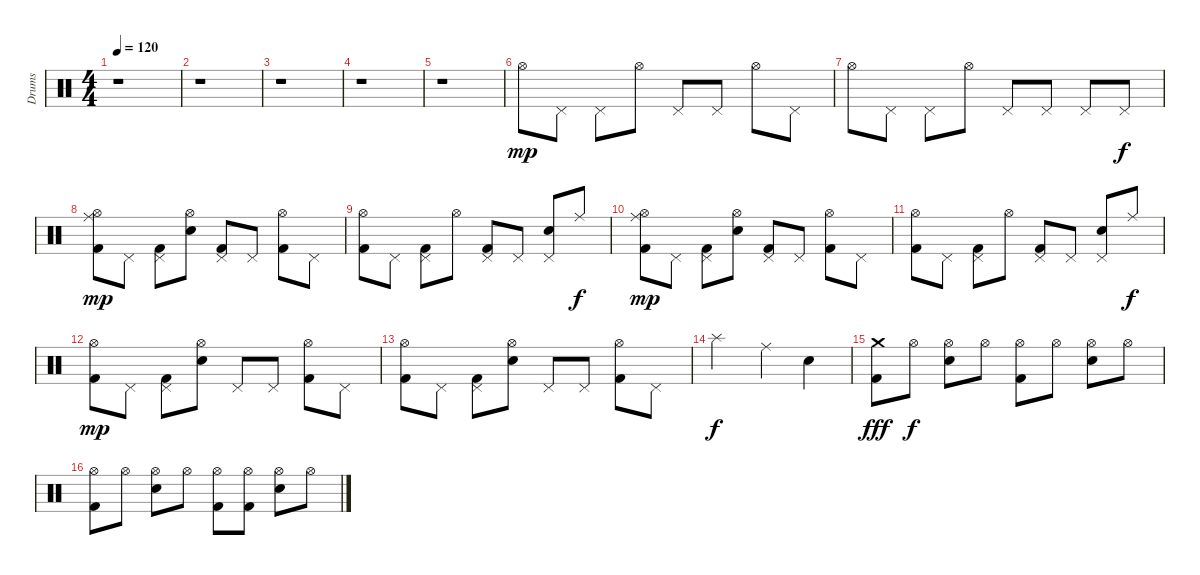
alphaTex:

\track ("Drums" "Drums") {instrument percussion}
\staff {score}
\articulation defaults
\ts (4 4)
\tempo 120
\clef neutral
\ks c
r.1{dy mp} |
r.1 |
r.1 |
r.1 |
r.1 |
"Hi-Hat (open)".8 "Pedal Hi-Hat (hit)".8 "Pedal Hi-Hat (hit)".8 "Hi-Hat (open)".8 "Pedal Hi-Hat (hit)".8 "Pedal Hi-Hat (hit)".8 "Hi-Hat (open)".8 "Pedal Hi-Hat (hit)".8 |
"Hi-Hat (open)".8 "Pedal Hi-Hat (hit)".8 "Pedal Hi-Hat (hit)".8 "Hi-Hat (open)".8 "Pedal Hi-Hat (hit)".8 "Pedal Hi-Hat (hit)".8 "Pedal Hi-Hat (hit)".8 "Pedal Hi-Hat (hit)".8{dy f} |
("Ride (middle)" "Hi-Hat (open)" "Kick (hit) 2").8{dy mp} "Pedal Hi-Hat (hit)".8 ("Pedal Hi-Hat (hit)" "Kick (hit) 2").8 ("Hi-Hat (open)" "Electric Snare (hit)").8 ("Pedal Hi-Hat (hit)" "Kick (hit) 2").8 "Pedal Hi-Hat (hit)".8 ("Hi-Hat (open)" "Kick (hit) 2").8 "Pedal Hi-Hat (hit)".8 |
("Hi-Hat (open)" "Kick (hit) 2").8 "Pedal Hi-Hat (hit)".8 ("Pedal Hi-Hat (hit)" "Kick (hit) 2").8 "Hi-Hat (open)".8 ("Pedal Hi-Hat (hit)" "Kick (hit) 2").8 "Pedal Hi-Hat (hit)".8 ("Pedal Hi-Hat (hit)" "Electric Snare (hit)").8 "Ride (middle)".8{dy f} |
("Ride (middle)" "Hi-Hat (open)" "Kick (hit) 2").8{dy mp} "Pedal Hi-Hat (hit)".8 ("Pedal Hi-Hat (hit)" "Kick (hit) 2").8 ("Hi-Hat (open)" "Electric Snare (hit)").8 ("Pedal Hi-Hat (hit)" "Kick (hit) 2").8 "Pedal Hi-Hat (hit)".8 ("Hi-Hat (open)" "Kick (hit) 2").8 "Pedal Hi-Hat (hit)".8 |
("Hi-Hat (open)" "Kick (hit) 2").8 "Pedal Hi-Hat (hit)".8 ("Pedal Hi-Hat (hit)" "Kick (hit) 2").8 "Hi-Hat (open)".8 ("Pedal Hi-Hat (hit)" "Kick (hit) 2").8 "Pedal Hi-Hat (hit)".8 ("Pedal Hi-Hat (hit)" "Electric Snare (hit)").8 "Ride (middle)".8{dy f} |
("Hi-Hat (open)" "Kick (hit) 2").8{dy mp} "Pedal Hi-Hat (hit)".8 ("Pedal Hi-Hat (hit)" "Kick (hit) 2").8 ("Hi-Hat (open)" "Electric Snare (hit)").8 "Pedal Hi-Hat (hit)".8 "Pedal Hi-Hat (hit)".8 ("Hi-Hat (open)" "Kick (hit) 2").8 "Pedal Hi-Hat (hit)".8 |
("Hi-Hat (open)" "Kick (hit) 2").8 "Pedal Hi-Hat (hit)".8 ("Pedal Hi-Hat (hit)" "Kick (hit) 2").8 ("Hi-Hat (open)" "Electric Snare (hit)").8 "Pedal Hi-Hat (hit)".8 "Pedal Hi-Hat (hit)".8 ("Hi-Hat (open)" "Kick (hit) 2").8 "Pedal Hi-Hat (hit)".8 |
"Splash (hit)".2{dy f} "Ride (middle)".4 "Electric Snare (hit)".4 |
("Crash medium (hit)" "Kick (hit) 2").8{dy fff} "Hi-Hat (open)".8{dy f} ("Hi-Hat (open)" "Electric Snare (hit)").8 "Hi-Hat (open)".8 ("Hi-Hat (open)" "Kick (hit) 2").8 "Hi-Hat (open)".8 ("Hi-Hat (open)" "Electric Snare (hit)").8 "Hi-Hat (open)".8 |
("Hi-Hat (open)" "Kick (hit) 2").8 "Hi-Hat (open)".8 ("Hi-Hat (open)" "Electric Snare (hit)").8 "Hi-Hat (open)".8 ("Hi-Hat (open)" "Kick (hit) 2").8 ("Hi-Hat (open)" "Kick (hit) 2").8 ("Hi-Hat (open)" "Electric Snare (hit)").8 "Hi-Hat (open)".8
